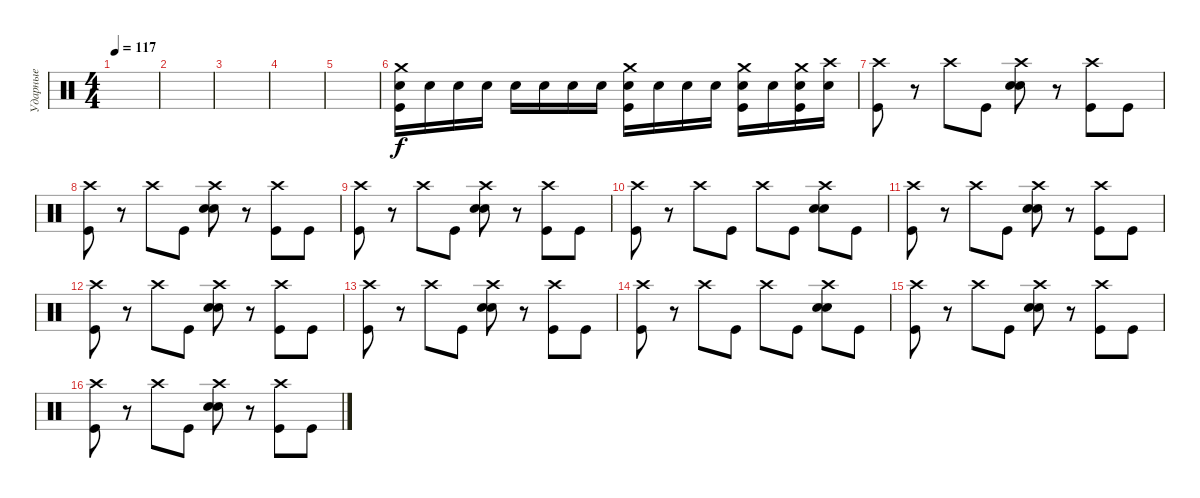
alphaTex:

\track ("Ударные" "Ударные") {instrument percussion}
\staff {score}
\articulation defaults
\ts (4 4)
\tempo 117
\clef neutral
\ks c
|
|
|
|
|
("Crash medium (hit)" "Snare (hit) 2" "Kick (hit)").16 "Snare (hit) 2".16 "Snare (hit) 2".16 "Snare (hit) 2".16 "Snare (hit) 2".16 "Snare (hit) 2".16 "Snare (hit) 2".16 "Snare (hit) 2".16 ("Crash medium (hit)" "Snare (hit) 2" "Kick (hit)").16 "Snare (hit) 2".16 "Snare (hit) 2".16 "Snare (hit) 2".16 ("Crash medium (hit)" "Snare (hit) 2" "Kick (hit)").16 "Snare (hit) 2".16 ("Crash medium (hit)" "Snare (hit) 2" "Kick (hit)").16 ("Crash high (hit)" "Snare (hit) 2").16 |
("Crash high (hit)" "Kick (hit)").8 r.8 "Crash high (hit)".8 "Kick (hit)".8 ("Crash high (hit)" "Snare (hit) 2" "Snare (hit) 2").8 r.8 ("Crash high (hit)" "Kick (hit)").8 "Kick (hit)".8 |
("Crash high (hit)" "Kick (hit)").8 r.8 "Crash high (hit)".8 "Kick (hit)".8 ("Crash high (hit)" "Snare (hit) 2" "Snare (hit) 2").8 r.8 ("Crash high (hit)" "Kick (hit)").8 "Kick (hit)".8 |
("Crash high (hit)" "Kick (hit)").8 r.8 "Crash high (hit)".8 "Kick (hit)".8 ("Crash high (hit)" "Snare (hit) 2" "Snare (hit) 2").8 r.8 ("Crash high (hit)" "Kick (hit)").8 "Kick (hit)".8 |
("Crash high (hit)" "Kick (hit)").8 r.8 "Crash high (hit)".8 "Kick (hit)".8 "Crash high (hit)".8 "Kick (hit)".8 ("Crash high (hit)" "Snare (hit) 2" "Snare (hit) 2").8 "Kick (hit)".8 |
("Crash high (hit)" "Kick (hit)").8 r.8 "Crash high (hit)".8 "Kick (hit)".8 ("Crash high (hit)" "Snare (hit) 2" "Snare (hit) 2").8 r.8 ("Crash high (hit)" "Kick (hit)").8 "Kick (hit)".8 |
("Crash high (hit)" "Kick (hit)").8 r.8 "Crash high (hit)".8 "Kick (hit)".8 ("Crash high (hit)" "Snare (hit) 2" "Snare (hit) 2").8 r.8 ("Crash high (hit)" "Kick (hit)").8 "Kick (hit)".8 |
("Crash high (hit)" "Kick (hit)").8 r.8 "Crash high (hit)".8 "Kick (hit)".8 ("Crash high (hit)" "Snare (hit) 2" "Snare (hit) 2").8 r.8 ("Crash high (hit)" "Kick (hit)").8 "Kick (hit)".8 |
("Crash high (hit)" "Kick (hit)").8 r.8 "Crash high (hit)".8 "Kick (hit)".8 "Crash high (hit)".8 "Kick (hit)".8 ("Crash high (hit)" "Snare (hit) 2" "Snare (hit) 2").8 "Kick (hit)".8 |
("Crash high (hit)" "Kick (hit)").8 r.8 "Crash high (hit)".8 "Kick (hit)".8 ("Crash high (hit)" "Snare (hit) 2" "Snare (hit) 2").8 r.8 ("Crash high (hit)" "Kick (hit)").8 "Kick (hit)".8 |
("Crash high (hit)" "Kick (hit)").8 r.8 "Crash high (hit)".8 "Kick (hit)".8 ("Crash high (hit)" "Snare (hit) 2" "Snare (hit) 2").8 r.8 ("Crash high (hit)" "Kick (hit)").8 "Kick (hit)".8
